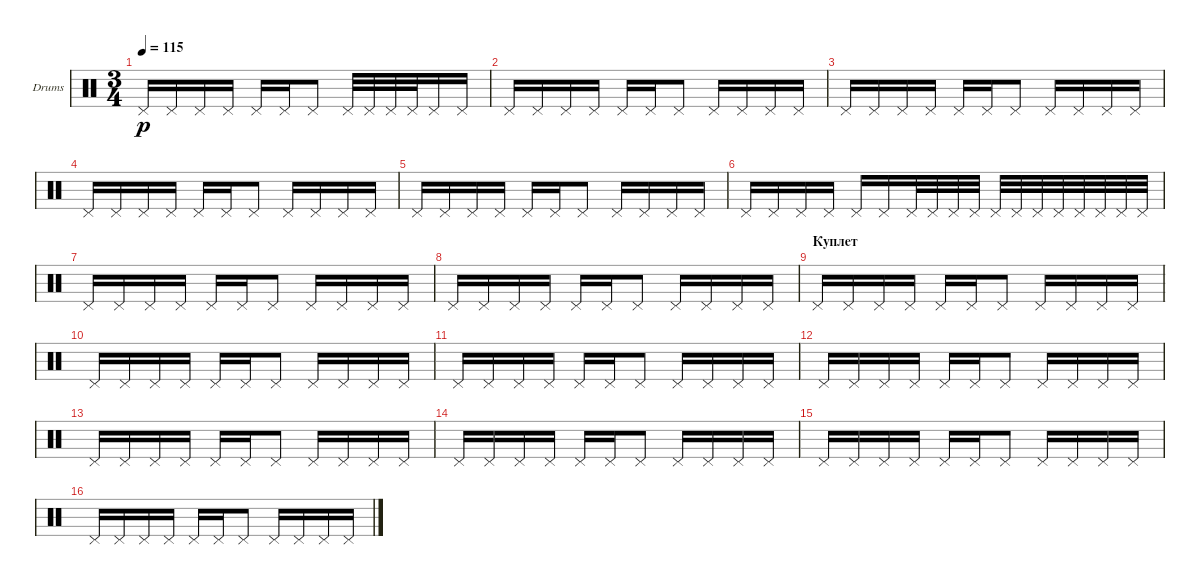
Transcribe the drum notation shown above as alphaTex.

\defaultSystemsLayout 4
\bracketExtendMode groupsimilarinstruments
\firstSystemTrackNameOrientation horizontal
\otherSystemsTrackNameOrientation horizontal
\track ("Е. Кулаков" "Drums") {instrument percussion}
\staff {score}
\articulation defaults
\ts (3 4)
\tempo 115
\clef neutral
\ks c "Pedal Hi-Hat (hit)".16{dy p} "Pedal Hi-Hat (hit)".16 "Pedal Hi-Hat (hit)".16 "Pedal Hi-Hat (hit)".16 "Pedal Hi-Hat (hit)".16 "Pedal Hi-Hat (hit)".16 "Pedal Hi-Hat (hit)".8 "Pedal Hi-Hat (hit)".32 "Pedal Hi-Hat (hit)".32 "Pedal Hi-Hat (hit)".32 "Pedal Hi-Hat (hit)".32 "Pedal Hi-Hat (hit)".16 "Pedal Hi-Hat (hit)".16
|
"Pedal Hi-Hat (hit)".16 "Pedal Hi-Hat (hit)".16 "Pedal Hi-Hat (hit)".16 "Pedal Hi-Hat (hit)".16 "Pedal Hi-Hat (hit)".16 "Pedal Hi-Hat (hit)".16 "Pedal Hi-Hat (hit)".8 "Pedal Hi-Hat (hit)".16 "Pedal Hi-Hat (hit)".16 "Pedal Hi-Hat (hit)".16 "Pedal Hi-Hat (hit)".16 |
"Pedal Hi-Hat (hit)".16 "Pedal Hi-Hat (hit)".16 "Pedal Hi-Hat (hit)".16 "Pedal Hi-Hat (hit)".16 "Pedal Hi-Hat (hit)".16 "Pedal Hi-Hat (hit)".16 "Pedal Hi-Hat (hit)".8 "Pedal Hi-Hat (hit)".16 "Pedal Hi-Hat (hit)".16 "Pedal Hi-Hat (hit)".16 "Pedal Hi-Hat (hit)".16 |
"Pedal Hi-Hat (hit)".16 "Pedal Hi-Hat (hit)".16 "Pedal Hi-Hat (hit)".16 "Pedal Hi-Hat (hit)".16 "Pedal Hi-Hat (hit)".16 "Pedal Hi-Hat (hit)".16 "Pedal Hi-Hat (hit)".8 "Pedal Hi-Hat (hit)".16 "Pedal Hi-Hat (hit)".16 "Pedal Hi-Hat (hit)".16 "Pedal Hi-Hat (hit)".16 |
"Pedal Hi-Hat (hit)".16 "Pedal Hi-Hat (hit)".16 "Pedal Hi-Hat (hit)".16 "Pedal Hi-Hat (hit)".16 "Pedal Hi-Hat (hit)".16 "Pedal Hi-Hat (hit)".16 "Pedal Hi-Hat (hit)".8 "Pedal Hi-Hat (hit)".16 "Pedal Hi-Hat (hit)".16 "Pedal Hi-Hat (hit)".16 "Pedal Hi-Hat (hit)".16 |
"Pedal Hi-Hat (hit)".16 "Pedal Hi-Hat (hit)".16 "Pedal Hi-Hat (hit)".16 "Pedal Hi-Hat (hit)".16 "Pedal Hi-Hat (hit)".16 "Pedal Hi-Hat (hit)".16 "Pedal Hi-Hat (hit)".32 "Pedal Hi-Hat (hit)".32 "Pedal Hi-Hat (hit)".32 "Pedal Hi-Hat (hit)".32 "Pedal Hi-Hat (hit)".32 "Pedal Hi-Hat (hit)".32 "Pedal Hi-Hat (hit)".32 "Pedal Hi-Hat (hit)".32 "Pedal Hi-Hat (hit)".32 "Pedal Hi-Hat (hit)".32 "Pedal Hi-Hat (hit)".32 "Pedal Hi-Hat (hit)".32 |
"Pedal Hi-Hat (hit)".16 "Pedal Hi-Hat (hit)".16 "Pedal Hi-Hat (hit)".16 "Pedal Hi-Hat (hit)".16 "Pedal Hi-Hat (hit)".16 "Pedal Hi-Hat (hit)".16 "Pedal Hi-Hat (hit)".8 "Pedal Hi-Hat (hit)".16 "Pedal Hi-Hat (hit)".16 "Pedal Hi-Hat (hit)".16 "Pedal Hi-Hat (hit)".16 |
"Pedal Hi-Hat (hit)".16 "Pedal Hi-Hat (hit)".16 "Pedal Hi-Hat (hit)".16 "Pedal Hi-Hat (hit)".16 "Pedal Hi-Hat (hit)".16 "Pedal Hi-Hat (hit)".16 "Pedal Hi-Hat (hit)".8 "Pedal Hi-Hat (hit)".16 "Pedal Hi-Hat (hit)".16 "Pedal Hi-Hat (hit)".16 "Pedal Hi-Hat (hit)".16 |
\section ("" "Куплет")
"Pedal Hi-Hat (hit)".16 "Pedal Hi-Hat (hit)".16 "Pedal Hi-Hat (hit)".16 "Pedal Hi-Hat (hit)".16 "Pedal Hi-Hat (hit)".16 "Pedal Hi-Hat (hit)".16 "Pedal Hi-Hat (hit)".8 "Pedal Hi-Hat (hit)".16 "Pedal Hi-Hat (hit)".16 "Pedal Hi-Hat (hit)".16 "Pedal Hi-Hat (hit)".16 |
"Pedal Hi-Hat (hit)".16 "Pedal Hi-Hat (hit)".16 "Pedal Hi-Hat (hit)".16 "Pedal Hi-Hat (hit)".16 "Pedal Hi-Hat (hit)".16 "Pedal Hi-Hat (hit)".16 "Pedal Hi-Hat (hit)".8 "Pedal Hi-Hat (hit)".16 "Pedal Hi-Hat (hit)".16 "Pedal Hi-Hat (hit)".16 "Pedal Hi-Hat (hit)".16 |
"Pedal Hi-Hat (hit)".16 "Pedal Hi-Hat (hit)".16 "Pedal Hi-Hat (hit)".16 "Pedal Hi-Hat (hit)".16 "Pedal Hi-Hat (hit)".16 "Pedal Hi-Hat (hit)".16 "Pedal Hi-Hat (hit)".8 "Pedal Hi-Hat (hit)".16 "Pedal Hi-Hat (hit)".16 "Pedal Hi-Hat (hit)".16 "Pedal Hi-Hat (hit)".16 |
"Pedal Hi-Hat (hit)".16 "Pedal Hi-Hat (hit)".16 "Pedal Hi-Hat (hit)".16 "Pedal Hi-Hat (hit)".16 "Pedal Hi-Hat (hit)".16 "Pedal Hi-Hat (hit)".16 "Pedal Hi-Hat (hit)".8 "Pedal Hi-Hat (hit)".16 "Pedal Hi-Hat (hit)".16 "Pedal Hi-Hat (hit)".16 "Pedal Hi-Hat (hit)".16 |
"Pedal Hi-Hat (hit)".16 "Pedal Hi-Hat (hit)".16 "Pedal Hi-Hat (hit)".16 "Pedal Hi-Hat (hit)".16 "Pedal Hi-Hat (hit)".16 "Pedal Hi-Hat (hit)".16 "Pedal Hi-Hat (hit)".8 "Pedal Hi-Hat (hit)".16 "Pedal Hi-Hat (hit)".16 "Pedal Hi-Hat (hit)".16 "Pedal Hi-Hat (hit)".16 |
"Pedal Hi-Hat (hit)".16 "Pedal Hi-Hat (hit)".16 "Pedal Hi-Hat (hit)".16 "Pedal Hi-Hat (hit)".16 "Pedal Hi-Hat (hit)".16 "Pedal Hi-Hat (hit)".16 "Pedal Hi-Hat (hit)".8 "Pedal Hi-Hat (hit)".16 "Pedal Hi-Hat (hit)".16 "Pedal Hi-Hat (hit)".16 "Pedal Hi-Hat (hit)".16 |
"Pedal Hi-Hat (hit)".16 "Pedal Hi-Hat (hit)".16 "Pedal Hi-Hat (hit)".16 "Pedal Hi-Hat (hit)".16 "Pedal Hi-Hat (hit)".16 "Pedal Hi-Hat (hit)".16 "Pedal Hi-Hat (hit)".8 "Pedal Hi-Hat (hit)".16 "Pedal Hi-Hat (hit)".16 "Pedal Hi-Hat (hit)".16 "Pedal Hi-Hat (hit)".16 |
"Pedal Hi-Hat (hit)".16 "Pedal Hi-Hat (hit)".16 "Pedal Hi-Hat (hit)".16 "Pedal Hi-Hat (hit)".16 "Pedal Hi-Hat (hit)".16 "Pedal Hi-Hat (hit)".16 "Pedal Hi-Hat (hit)".8 "Pedal Hi-Hat (hit)".16 "Pedal Hi-Hat (hit)".16 "Pedal Hi-Hat (hit)".16 "Pedal Hi-Hat (hit)".16
